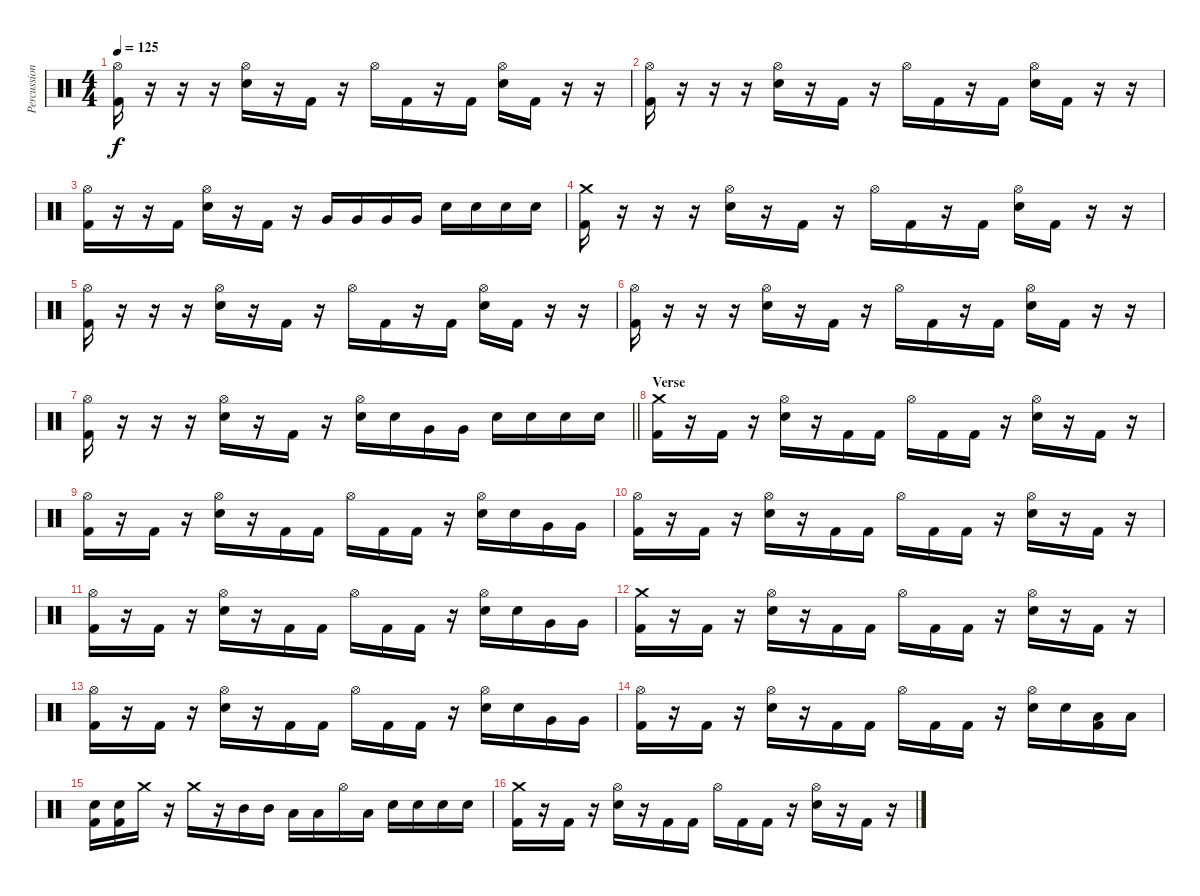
\track ("Percussion" "Percussion") {instrument percussion}
\staff {score}
\articulation defaults
\ts (4 4)
\tempo 125
\clef neutral
\ks c
("Hi-Hat (open)" "Kick (hit) 2").16{dy f} r.16 r.16 r.16 ("Hi-Hat (open)" "Electric Snare (hit)").16 r.16 "Kick (hit) 2".16 r.16 "Hi-Hat (open)".16 "Kick (hit) 2".16 r.16 "Kick (hit) 2".16 ("Hi-Hat (open)" "Electric Snare (hit)").16 "Kick (hit) 2".16 r.16 r.16 |
("Hi-Hat (open)" "Kick (hit) 2").16 r.16 r.16 r.16 ("Hi-Hat (open)" "Electric Snare (hit)").16 r.16 "Kick (hit) 2".16 r.16 "Hi-Hat (open)".16 "Kick (hit) 2".16 r.16 "Kick (hit) 2".16 ("Hi-Hat (open)" "Electric Snare (hit)").16 "Kick (hit) 2".16 r.16 r.16 |
("Hi-Hat (open)" "Kick (hit) 2").16 r.16 r.16 "Kick (hit) 2".16 ("Hi-Hat (open)" "Electric Snare (hit)").16 r.16 "Kick (hit) 2".16 r.16 "Very Low Tom (hit)".16 "Very Low Tom (hit)".16 "Very Low Tom (hit)".16 "Very Low Tom (hit)".16 "Electric Snare (hit)".16 "Electric Snare (hit)".16 "Electric Snare (hit)".16 "Electric Snare (hit)".16 |
("Crash medium (hit)" "Kick (hit) 2").16 r.16 r.16 r.16 ("Hi-Hat (open)" "Electric Snare (hit)").16 r.16 "Kick (hit) 2".16 r.16 "Hi-Hat (open)".16 "Kick (hit) 2".16 r.16 "Kick (hit) 2".16 ("Hi-Hat (open)" "Electric Snare (hit)").16 "Kick (hit) 2".16 r.16 r.16 |
("Hi-Hat (open)" "Kick (hit) 2").16 r.16 r.16 r.16 ("Hi-Hat (open)" "Electric Snare (hit)").16 r.16 "Kick (hit) 2".16 r.16 "Hi-Hat (open)".16 "Kick (hit) 2".16 r.16 "Kick (hit) 2".16 ("Hi-Hat (open)" "Electric Snare (hit)").16 "Kick (hit) 2".16 r.16 r.16 |
("Hi-Hat (open)" "Kick (hit) 2").16 r.16 r.16 r.16 ("Hi-Hat (open)" "Electric Snare (hit)").16 r.16 "Kick (hit) 2".16 r.16 "Hi-Hat (open)".16 "Kick (hit) 2".16 r.16 "Kick (hit) 2".16 ("Hi-Hat (open)" "Electric Snare (hit)").16 "Kick (hit) 2".16 r.16 r.16 |
\barLineRight lightlight
("Hi-Hat (open)" "Kick (hit) 2").16 r.16 r.16 r.16 ("Hi-Hat (open)" "Electric Snare (hit)").16 r.16 "Kick (hit) 2".16 r.16 ("Hi-Hat (open)" "Electric Snare (hit)").16 "Electric Snare (hit)".16 "Very Low Tom (hit)".16 "Very Low Tom (hit)".16 "Electric Snare (hit)".16 "Electric Snare (hit)".16 "Electric Snare (hit)".16 "Electric Snare (hit)".16 |
\section ("" "Verse")
("Crash medium (hit)" "Kick (hit) 2").16 r.16 "Kick (hit) 2".16 r.16 ("Hi-Hat (open)" "Electric Snare (hit)").16 r.16 "Kick (hit) 2".16 "Kick (hit) 2".16 "Hi-Hat (open)".16 "Kick (hit) 2".16 "Kick (hit) 2".16 r.16 ("Hi-Hat (open)" "Electric Snare (hit)").16 r.16 "Kick (hit) 2".16 r.16 |
("Hi-Hat (open)" "Kick (hit) 2").16 r.16 "Kick (hit) 2".16 r.16 ("Hi-Hat (open)" "Electric Snare (hit)").16 r.16 "Kick (hit) 2".16 "Kick (hit) 2".16 "Hi-Hat (open)".16 "Kick (hit) 2".16 "Kick (hit) 2".16 r.16 ("Hi-Hat (open)" "Electric Snare (hit)").16 "Electric Snare (hit)".16 "Very Low Tom (hit)".16 "Very Low Tom (hit)".16 |
("Hi-Hat (open)" "Kick (hit) 2").16 r.16 "Kick (hit) 2".16 r.16 ("Hi-Hat (open)" "Electric Snare (hit)").16 r.16 "Kick (hit) 2".16 "Kick (hit) 2".16 "Hi-Hat (open)".16 "Kick (hit) 2".16 "Kick (hit) 2".16 r.16 ("Hi-Hat (open)" "Electric Snare (hit)").16 r.16 "Kick (hit) 2".16 r.16 |
("Hi-Hat (open)" "Kick (hit) 2").16 r.16 "Kick (hit) 2".16 r.16 ("Hi-Hat (open)" "Electric Snare (hit)").16 r.16 "Kick (hit) 2".16 "Kick (hit) 2".16 "Hi-Hat (open)".16 "Kick (hit) 2".16 "Kick (hit) 2".16 r.16 ("Hi-Hat (open)" "Electric Snare (hit)").16 "Electric Snare (hit)".16 "Very Low Tom (hit)".16 "Very Low Tom (hit)".16 |
("Crash medium (hit)" "Kick (hit) 2").16 r.16 "Kick (hit) 2".16 r.16 ("Hi-Hat (open)" "Electric Snare (hit)").16 r.16 "Kick (hit) 2".16 "Kick (hit) 2".16 "Hi-Hat (open)".16 "Kick (hit) 2".16 "Kick (hit) 2".16 r.16 ("Hi-Hat (open)" "Electric Snare (hit)").16 r.16 "Kick (hit) 2".16 r.16 |
("Hi-Hat (open)" "Kick (hit) 2").16 r.16 "Kick (hit) 2".16 r.16 ("Hi-Hat (open)" "Electric Snare (hit)").16 r.16 "Kick (hit) 2".16 "Kick (hit) 2".16 "Hi-Hat (open)".16 "Kick (hit) 2".16 "Kick (hit) 2".16 r.16 ("Hi-Hat (open)" "Electric Snare (hit)").16 "Electric Snare (hit)".16 "Very Low Tom (hit)".16 "Very Low Tom (hit)".16 |
("Hi-Hat (open)" "Kick (hit) 2").16 r.16 "Kick (hit) 2".16 r.16 ("Hi-Hat (open)" "Electric Snare (hit)").16 r.16 "Kick (hit) 2".16 "Kick (hit) 2".16 "Hi-Hat (open)".16 "Kick (hit) 2".16 "Kick (hit) 2".16 r.16 ("Hi-Hat (open)" "Electric Snare (hit)").16 "Electric Snare (hit)".16 ("Low Tom (hit)" "Kick (hit) 2").16 "Low Tom (hit)".16 |
("Electric Snare (hit)" "Kick (hit) 2").16 ("Electric Snare (hit)" "Kick (hit) 2").16 "Crash medium (hit)".16 r.16 "Crash medium (hit)".16 r.16 "Mid Tom (hit)".16 "Mid Tom (hit)".16 "Low Tom (hit)".16 "Low Tom (hit)".16 "Hi-Hat (open)".16 "Low Floor Tom (hit)".16 "Electric Snare (hit)".16 "Electric Snare (hit)".16 "Electric Snare (hit)".16 "Electric Snare (hit)".16 |
("Crash medium (hit)" "Kick (hit) 2").16 r.16 "Kick (hit) 2".16 r.16 ("Hi-Hat (open)" "Electric Snare (hit)").16 r.16 "Kick (hit) 2".16 "Kick (hit) 2".16 "Hi-Hat (open)".16 "Kick (hit) 2".16 "Kick (hit) 2".16 r.16 ("Hi-Hat (open)" "Electric Snare (hit)").16 r.16 "Kick (hit) 2".16 r.16
